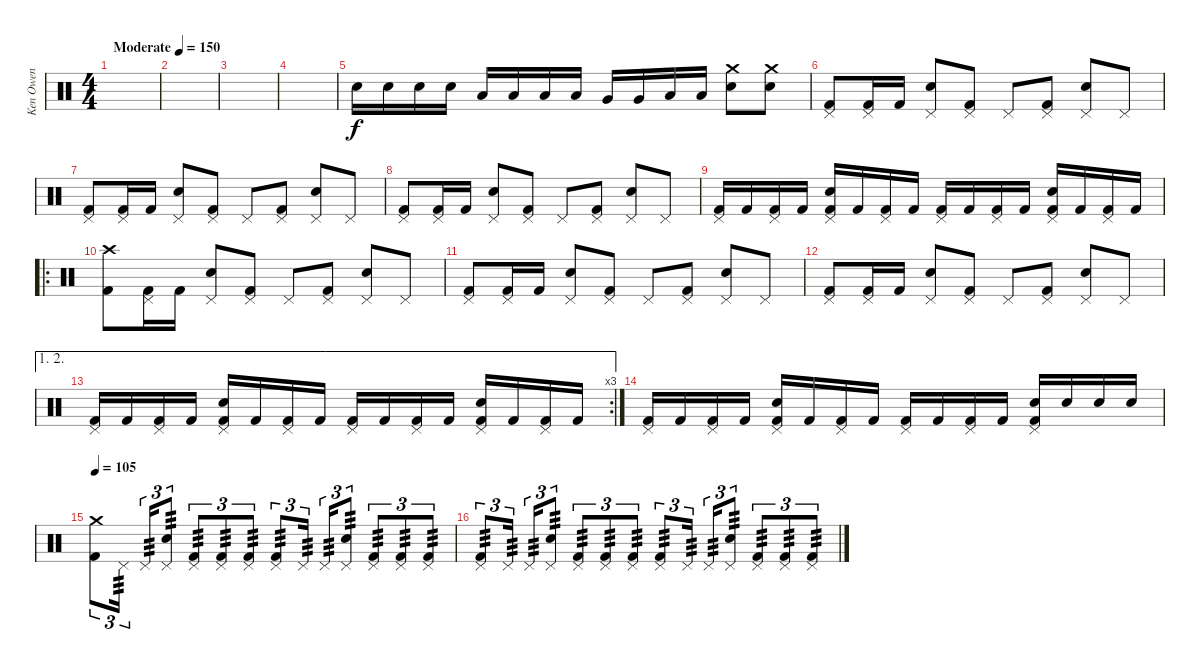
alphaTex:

\track ("Ken Owen" "Ken Owen") {instrument percussion}
\staff {score}
\articulation defaults
\ts (4 4)
\tempo (150 "Moderate")
\clef neutral
\ks c
|
|
|
|
"Electric Snare (hit)".16 "Electric Snare (hit)".16 "Electric Snare (hit)".16 "Electric Snare (hit)".16 "Low Tom (hit)".16 "Low Tom (hit)".16 "Low Tom (hit)".16 "Low Tom (hit)".16 "Very Low Tom (hit)".16 "Very Low Tom (hit)".16 "Low Floor Tom (hit)".16 "Low Floor Tom (hit)".16 ("Crash medium (hit)" "Electric Snare (hit)").8 ("Crash medium (hit)" "Electric Snare (hit)").8 |
("Pedal Hi-Hat (hit)" "Kick (hit) 2").8 ("Pedal Hi-Hat (hit)" "Kick (hit) 2").16 "Kick (hit) 2".16 ("Pedal Hi-Hat (hit)" "Electric Snare (hit)").8 ("Pedal Hi-Hat (hit)" "Kick (hit) 2").8 "Pedal Hi-Hat (hit)".8 ("Pedal Hi-Hat (hit)" "Kick (hit) 2").8 ("Pedal Hi-Hat (hit)" "Electric Snare (hit)").8 "Pedal Hi-Hat (hit)".8 |
("Pedal Hi-Hat (hit)" "Kick (hit) 2").8 ("Pedal Hi-Hat (hit)" "Kick (hit) 2").16 "Kick (hit) 2".16 ("Pedal Hi-Hat (hit)" "Electric Snare (hit)").8 ("Pedal Hi-Hat (hit)" "Kick (hit) 2").8 "Pedal Hi-Hat (hit)".8 ("Pedal Hi-Hat (hit)" "Kick (hit) 2").8 ("Pedal Hi-Hat (hit)" "Electric Snare (hit)").8 "Pedal Hi-Hat (hit)".8 |
("Pedal Hi-Hat (hit)" "Kick (hit) 2").8 ("Pedal Hi-Hat (hit)" "Kick (hit) 2").16 "Kick (hit) 2".16 ("Pedal Hi-Hat (hit)" "Electric Snare (hit)").8 ("Pedal Hi-Hat (hit)" "Kick (hit) 2").8 "Pedal Hi-Hat (hit)".8 ("Pedal Hi-Hat (hit)" "Kick (hit) 2").8 ("Pedal Hi-Hat (hit)" "Electric Snare (hit)").8 "Pedal Hi-Hat (hit)".8 |
("Pedal Hi-Hat (hit)" "Kick (hit) 2").16 "Kick (hit) 2".16 ("Pedal Hi-Hat (hit)" "Kick (hit) 2").16 "Kick (hit) 2".16 ("Pedal Hi-Hat (hit)" "Electric Snare (hit)" "Kick (hit) 2").16 "Kick (hit) 2".16 ("Pedal Hi-Hat (hit)" "Kick (hit) 2").16 "Kick (hit) 2".16 ("Pedal Hi-Hat (hit)" "Kick (hit) 2").16 "Kick (hit) 2".16 ("Pedal Hi-Hat (hit)" "Kick (hit) 2").16 "Kick (hit) 2".16 ("Pedal Hi-Hat (hit)" "Electric Snare (hit)" "Kick (hit) 2").16 "Kick (hit) 2".16 ("Pedal Hi-Hat (hit)" "Kick (hit) 2").16 "Kick (hit) 2".16 |
\ro
("Crash high (hit)" "Kick (hit) 2").8 ("Pedal Hi-Hat (hit)" "Kick (hit) 2").16 "Kick (hit) 2".16 ("Pedal Hi-Hat (hit)" "Electric Snare (hit)").8 ("Pedal Hi-Hat (hit)" "Kick (hit) 2").8 "Pedal Hi-Hat (hit)".8 ("Pedal Hi-Hat (hit)" "Kick (hit) 2").8 ("Pedal Hi-Hat (hit)" "Electric Snare (hit)").8 "Pedal Hi-Hat (hit)".8 |
("Pedal Hi-Hat (hit)" "Kick (hit) 2").8 ("Pedal Hi-Hat (hit)" "Kick (hit) 2").16 "Kick (hit) 2".16 ("Pedal Hi-Hat (hit)" "Electric Snare (hit)").8 ("Pedal Hi-Hat (hit)" "Kick (hit) 2").8 "Pedal Hi-Hat (hit)".8 ("Pedal Hi-Hat (hit)" "Kick (hit) 2").8 ("Pedal Hi-Hat (hit)" "Electric Snare (hit)").8 "Pedal Hi-Hat (hit)".8 |
("Pedal Hi-Hat (hit)" "Kick (hit) 2").8 ("Pedal Hi-Hat (hit)" "Kick (hit) 2").16 "Kick (hit) 2".16 ("Pedal Hi-Hat (hit)" "Electric Snare (hit)").8 ("Pedal Hi-Hat (hit)" "Kick (hit) 2").8 "Pedal Hi-Hat (hit)".8 ("Pedal Hi-Hat (hit)" "Kick (hit) 2").8 ("Pedal Hi-Hat (hit)" "Electric Snare (hit)").8 "Pedal Hi-Hat (hit)".8 |
\ae (1 2)
\rc 3
("Pedal Hi-Hat (hit)" "Kick (hit) 2").16 "Kick (hit) 2".16 ("Pedal Hi-Hat (hit)" "Kick (hit) 2").16 "Kick (hit) 2".16 ("Pedal Hi-Hat (hit)" "Electric Snare (hit)" "Kick (hit) 2").16 "Kick (hit) 2".16 ("Pedal Hi-Hat (hit)" "Kick (hit) 2").16 "Kick (hit) 2".16 ("Pedal Hi-Hat (hit)" "Kick (hit) 2").16 "Kick (hit) 2".16 ("Pedal Hi-Hat (hit)" "Kick (hit) 2").16 "Kick (hit) 2".16 ("Pedal Hi-Hat (hit)" "Electric Snare (hit)" "Kick (hit) 2").16 "Kick (hit) 2".16 ("Pedal Hi-Hat (hit)" "Kick (hit) 2").16 "Kick (hit) 2".16 |
("Pedal Hi-Hat (hit)" "Kick (hit) 2").16 "Kick (hit) 2".16 ("Pedal Hi-Hat (hit)" "Kick (hit) 2").16 "Kick (hit) 2".16 ("Pedal Hi-Hat (hit)" "Electric Snare (hit)" "Kick (hit) 2").16 "Kick (hit) 2".16 ("Pedal Hi-Hat (hit)" "Kick (hit) 2").16 "Kick (hit) 2".16 ("Pedal Hi-Hat (hit)" "Kick (hit) 2").16 "Kick (hit) 2".16 ("Pedal Hi-Hat (hit)" "Kick (hit) 2").16 "Kick (hit) 2".16 ("Pedal Hi-Hat (hit)" "Electric Snare (hit)" "Kick (hit) 2").16 "Electric Snare (hit)".16 "Electric Snare (hit)".16 "Electric Snare (hit)".16 |
\tempo 105
("Crash medium (hit)" "Kick (hit) 2").8{tu (3 2)} "Pedal Hi-Hat (hit)".16{tu (3 2) tp 3 beam splitsecondary} "Pedal Hi-Hat (hit)".16{tu (3 2) tp 3} ("Pedal Hi-Hat (hit)" "Electric Snare (hit)").8{tu (3 2) tp 3} ("Pedal Hi-Hat (hit)" "Kick (hit) 2").8{tu (3 2) tp 3} ("Pedal Hi-Hat (hit)" "Kick (hit) 2").8{tu (3 2) tp 3} ("Pedal Hi-Hat (hit)" "Kick (hit) 2").8{tu (3 2) tp 3} ("Pedal Hi-Hat (hit)" "Kick (hit) 2").8{tu (3 2) tp 3} "Pedal Hi-Hat (hit)".16{tu (3 2) tp 3 beam splitsecondary} "Pedal Hi-Hat (hit)".16{tu (3 2) tp 3} ("Pedal Hi-Hat (hit)" "Electric Snare (hit)").8{tu (3 2) tp 3} ("Pedal Hi-Hat (hit)" "Kick (hit) 2").8{tu (3 2) tp 3} ("Pedal Hi-Hat (hit)" "Kick (hit) 2").8{tu (3 2) tp 3} ("Pedal Hi-Hat (hit)" "Kick (hit) 2").8{tu (3 2) tp 3} |
("Pedal Hi-Hat (hit)" "Kick (hit) 2").8{tu (3 2) tp 3} "Pedal Hi-Hat (hit)".16{tu (3 2) tp 3 beam splitsecondary} "Pedal Hi-Hat (hit)".16{tu (3 2) tp 3} ("Pedal Hi-Hat (hit)" "Electric Snare (hit)").8{tu (3 2) tp 3} ("Pedal Hi-Hat (hit)" "Kick (hit) 2").8{tu (3 2) tp 3} ("Pedal Hi-Hat (hit)" "Kick (hit) 2").8{tu (3 2) tp 3} ("Pedal Hi-Hat (hit)" "Kick (hit) 2").8{tu (3 2) tp 3} ("Pedal Hi-Hat (hit)" "Kick (hit) 2").8{tu (3 2) tp 3} "Pedal Hi-Hat (hit)".16{tu (3 2) tp 3 beam splitsecondary} "Pedal Hi-Hat (hit)".16{tu (3 2) tp 3} ("Pedal Hi-Hat (hit)" "Electric Snare (hit)").8{tu (3 2) tp 3} ("Pedal Hi-Hat (hit)" "Kick (hit) 2").8{tu (3 2) tp 3} ("Pedal Hi-Hat (hit)" "Kick (hit) 2").8{tu (3 2) tp 3} ("Pedal Hi-Hat (hit)" "Kick (hit) 2").8{tu (3 2) tp 3}
